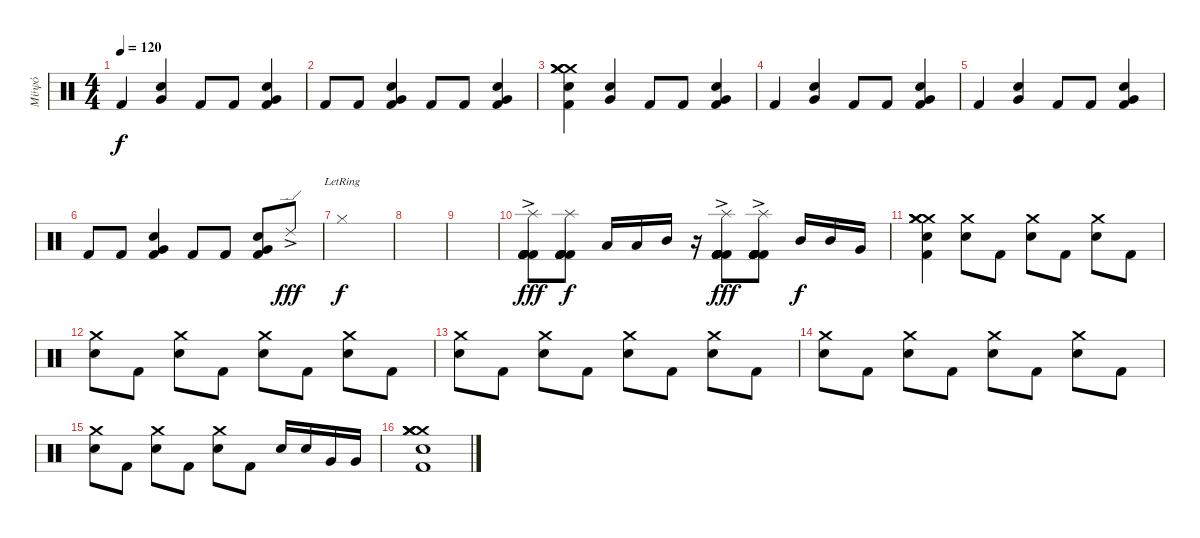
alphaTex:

\track ("Μϋψό" "Μϋψό") {instrument percussion}
\staff {score}
\articulation defaults
\ts (4 4)
\tempo 120
\clef neutral
\ks c "Kick (hit) 2".4{dy f}
("Electric Snare (hit)" "Very Low Tom (hit)").4 "Kick (hit) 2".8 "Kick (hit) 2".8 ("Electric Snare (hit)" "Kick (hit) 2" "Very Low Tom (hit)").4 |
"Kick (hit) 2".8 "Kick (hit) 2".8 ("Electric Snare (hit)" "Kick (hit) 2" "Very Low Tom (hit)").4 "Kick (hit) 2".8 "Kick (hit) 2".8 ("Electric Snare (hit)" "Kick (hit) 2" "Very Low Tom (hit)").4 |
("Kick (hit) 2" "Electric Snare (hit)" "Crash medium (hit)" "Crash medium (hit)" "Crash medium (hit)" "Crash medium (hit)").4 ("Electric Snare (hit)" "Very Low Tom (hit)").4 "Kick (hit) 2".8 "Kick (hit) 2".8 ("Electric Snare (hit)" "Kick (hit) 2" "Very Low Tom (hit)").4 |
"Kick (hit) 2".4 ("Electric Snare (hit)" "Very Low Tom (hit)").4 "Kick (hit) 2".8 "Kick (hit) 2".8 ("Electric Snare (hit)" "Kick (hit) 2" "Very Low Tom (hit)").4 |
"Kick (hit) 2".4 ("Electric Snare (hit)" "Very Low Tom (hit)").4 "Kick (hit) 2".8 "Kick (hit) 2".8 ("Electric Snare (hit)" "Kick (hit) 2" "Very Low Tom (hit)").4 |
"Kick (hit) 2".8 "Kick (hit) 2".8 ("Electric Snare (hit)" "Kick (hit) 2" "Very Low Tom (hit)").4 "Kick (hit) 2".8 "Kick (hit) 2".8 ("Electric Snare (hit)" "Kick (hit) 2" "Very Low Tom (hit)").8 "Ride (edge) 2"{ac}.8{dy fff} |
"Hi-Hat (closed)"{lr}.1{dy f} |
|
|
("Splash (hit)" "Kick (hit) 2"{ac} "Kick (hit) 2" "Kick (hit) 2" "Kick (hit) 2" "Kick (hit) 2").8{dy fff} ("Splash (hit)" "Kick (hit) 2" "Kick (hit) 2" "Kick (hit) 2" "Kick (hit) 2" "Kick (hit) 2").8{dy f} "Low Tom (hit)".16 "Low Tom (hit)".16 "Mid Tom (hit)".16 r.16 ("Splash (hit)" "Kick (hit) 2"{ac} "Kick (hit) 2" "Kick (hit) 2" "Kick (hit) 2" "Kick (hit) 2").8{dy fff} ("Splash (hit)" "Kick (hit) 2"{ac} "Kick (hit) 2" "Kick (hit) 2" "Kick (hit) 2" "Kick (hit) 2").8 "Mid Tom (hit)".16{dy f} "Mid Tom (hit)".16 "Very Low Tom (hit)".16 |
("Kick (hit) 2" "Electric Snare (hit)" "Crash medium (hit)" "Crash medium (hit)" "Crash medium (hit)" "Crash medium (hit)").4 ("Electric Snare (hit)" "Crash medium (hit)").8 "Kick (hit) 2".8 ("Electric Snare (hit)" "Crash medium (hit)").8 "Kick (hit) 2".8 ("Electric Snare (hit)" "Crash medium (hit)").8 "Kick (hit) 2".8 |
("Electric Snare (hit)" "Crash medium (hit)").8 "Kick (hit) 2".8 ("Electric Snare (hit)" "Crash medium (hit)").8 "Kick (hit) 2".8 ("Electric Snare (hit)" "Crash medium (hit)").8 "Kick (hit) 2".8 ("Electric Snare (hit)" "Crash medium (hit)").8 "Kick (hit) 2".8 |
("Electric Snare (hit)" "Crash medium (hit)").8 "Kick (hit) 2".8 ("Electric Snare (hit)" "Crash medium (hit)").8 "Kick (hit) 2".8 ("Electric Snare (hit)" "Crash medium (hit)").8 "Kick (hit) 2".8 ("Electric Snare (hit)" "Crash medium (hit)").8 "Kick (hit) 2".8 |
("Electric Snare (hit)" "Crash medium (hit)").8 "Kick (hit) 2".8 ("Electric Snare (hit)" "Crash medium (hit)").8 "Kick (hit) 2".8 ("Electric Snare (hit)" "Crash medium (hit)").8 "Kick (hit) 2".8 ("Electric Snare (hit)" "Crash medium (hit)").8 "Kick (hit) 2".8 |
("Electric Snare (hit)" "Crash medium (hit)").8 "Kick (hit) 2".8 ("Electric Snare (hit)" "Crash medium (hit)").8 "Kick (hit) 2".8 ("Electric Snare (hit)" "Crash medium (hit)").8 "Kick (hit) 2".8 "Electric Snare (hit)".16 "Electric Snare (hit)".16 "Very Low Tom (hit)".16 "Very Low Tom (hit)".16 |
("Kick (hit) 2" "Electric Snare (hit)" "Crash medium (hit)" "Crash medium (hit)" "Crash medium (hit)" "Crash medium (hit)").1
